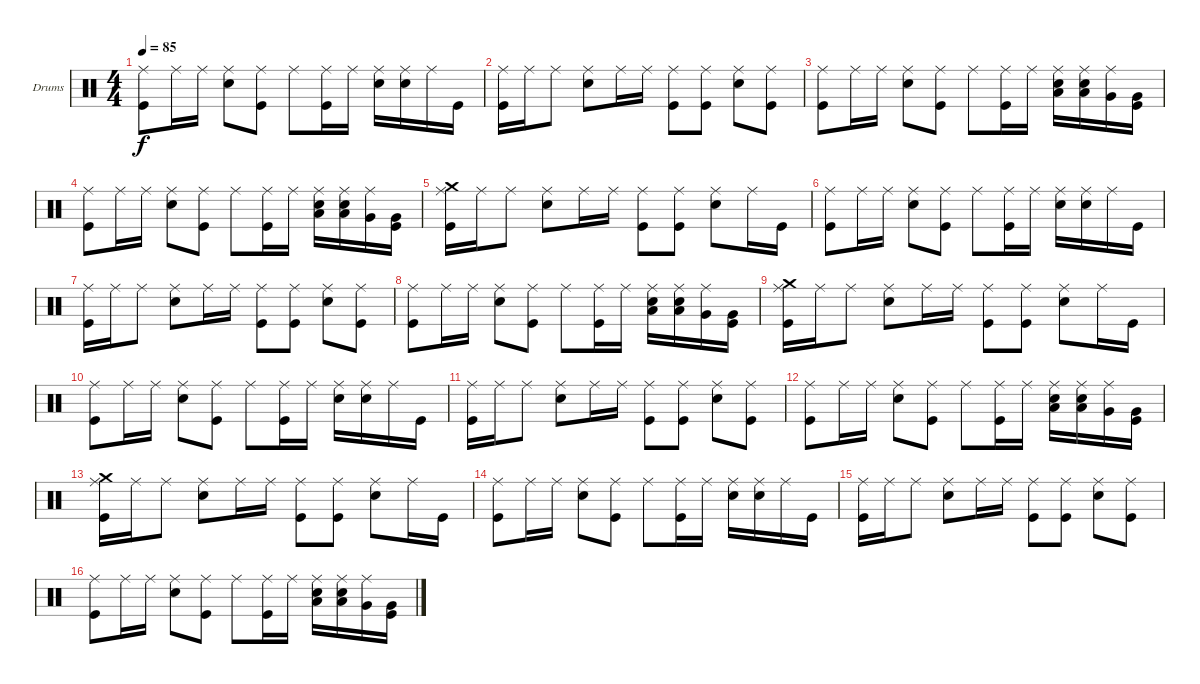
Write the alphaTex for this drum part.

\bracketExtendMode groupsimilarinstruments
\firstSystemTrackNameOrientation horizontal
\otherSystemsTrackNameOrientation horizontal
\track ("Drumkit" "Drums") {instrument percussion}
\staff {score}
\articulation defaults
\ts (4 4)
\tempo 85
\clef neutral
\ks c
("Kick (hit)" "Ride (middle)").8{dy f} "Ride (middle)".16 "Ride (middle)".16 ("Snare (hit) 2" "Ride (middle)").8 ("Kick (hit)" "Ride (middle)").8 "Ride (middle)".8 ("Kick (hit)" "Ride (middle)").16 "Ride (middle)".16 ("Snare (hit) 2" "Ride (middle)").16 ("Snare (hit) 2" "Ride (middle)").16 "Ride (middle)".16 "Kick (hit)".16 |
("Kick (hit)" "Ride (middle)").16 "Ride (middle)".16 "Ride (middle)".8 ("Snare (hit) 2" "Ride (middle)").8 "Ride (middle)".16 "Ride (middle)".16 ("Kick (hit)" "Ride (middle)").8 ("Kick (hit)" "Ride (middle)").8 ("Snare (hit) 2" "Ride (middle)").8 ("Kick (hit)" "Ride (middle)").8 |
("Kick (hit)" "Ride (middle)").8 "Ride (middle)".16 "Ride (middle)".16 ("Snare (hit) 2" "Ride (middle)").8 ("Kick (hit)" "Ride (middle)").8 "Ride (middle)".8 ("Kick (hit)" "Ride (middle)").16 "Ride (middle)".16 ("Snare (hit) 2" "Low Tom (hit)" "Ride (middle)").16 ("Snare (hit) 2" "Low Tom (hit)" "Ride (middle)").16 ("Very Low Tom (hit)" "Ride (middle)").16 ("Kick (hit)" "Very Low Tom (hit)").16 |
("Kick (hit)" "Ride (middle)").8 "Ride (middle)".16 "Ride (middle)".16 ("Snare (hit) 2" "Ride (middle)").8 ("Kick (hit)" "Ride (middle)").8 "Ride (middle)".8 ("Kick (hit)" "Ride (middle)").16 "Ride (middle)".16 ("Snare (hit) 2" "Low Tom (hit)" "Ride (middle)").16 ("Snare (hit) 2" "Low Tom (hit)" "Ride (middle)").16 ("Very Low Tom (hit)" "Ride (middle)").16 ("Kick (hit)" "Very Low Tom (hit)").16 |
("Kick (hit)" "Crash medium (hit)" "Ride (middle)").16 "Ride (middle)".16 "Ride (middle)".8 ("Snare (hit) 2" "Ride (middle)").8 "Ride (middle)".16 "Ride (middle)".16 ("Kick (hit)" "Ride (middle)").8 ("Kick (hit)" "Ride (middle)").8 ("Snare (hit) 2" "Ride (middle)").8 "Ride (middle)".16 "Kick (hit)".16 |
("Kick (hit)" "Ride (middle)").8 "Ride (middle)".16 "Ride (middle)".16 ("Snare (hit) 2" "Ride (middle)").8 ("Kick (hit)" "Ride (middle)").8 "Ride (middle)".8 ("Kick (hit)" "Ride (middle)").16 "Ride (middle)".16 ("Snare (hit) 2" "Ride (middle)").16 ("Snare (hit) 2" "Ride (middle)").16 "Ride (middle)".16 "Kick (hit)".16 |
("Kick (hit)" "Ride (middle)").16 "Ride (middle)".16 "Ride (middle)".8 ("Snare (hit) 2" "Ride (middle)").8 "Ride (middle)".16 "Ride (middle)".16 ("Kick (hit)" "Ride (middle)").8 ("Kick (hit)" "Ride (middle)").8 ("Snare (hit) 2" "Ride (middle)").8 ("Kick (hit)" "Ride (middle)").8 |
("Kick (hit)" "Ride (middle)").8 "Ride (middle)".16 "Ride (middle)".16 ("Snare (hit) 2" "Ride (middle)").8 ("Kick (hit)" "Ride (middle)").8 "Ride (middle)".8 ("Kick (hit)" "Ride (middle)").16 "Ride (middle)".16 ("Snare (hit) 2" "Low Tom (hit)" "Ride (middle)").16 ("Snare (hit) 2" "Low Tom (hit)" "Ride (middle)").16 ("Very Low Tom (hit)" "Ride (middle)").16 ("Kick (hit)" "Very Low Tom (hit)").16 |
("Kick (hit)" "Crash medium (hit)" "Ride (middle)").16 "Ride (middle)".16 "Ride (middle)".8 ("Snare (hit) 2" "Ride (middle)").8 "Ride (middle)".16 "Ride (middle)".16 ("Kick (hit)" "Ride (middle)").8 ("Kick (hit)" "Ride (middle)").8 ("Snare (hit) 2" "Ride (middle)").8 "Ride (middle)".16 "Kick (hit)".16 |
("Kick (hit)" "Ride (middle)").8 "Ride (middle)".16 "Ride (middle)".16 ("Snare (hit) 2" "Ride (middle)").8 ("Kick (hit)" "Ride (middle)").8 "Ride (middle)".8 ("Kick (hit)" "Ride (middle)").16 "Ride (middle)".16 ("Snare (hit) 2" "Ride (middle)").16 ("Snare (hit) 2" "Ride (middle)").16 "Ride (middle)".16 "Kick (hit)".16 |
("Kick (hit)" "Ride (middle)").16 "Ride (middle)".16 "Ride (middle)".8 ("Snare (hit) 2" "Ride (middle)").8 "Ride (middle)".16 "Ride (middle)".16 ("Kick (hit)" "Ride (middle)").8 ("Kick (hit)" "Ride (middle)").8 ("Snare (hit) 2" "Ride (middle)").8 ("Kick (hit)" "Ride (middle)").8 |
("Kick (hit)" "Ride (middle)").8 "Ride (middle)".16 "Ride (middle)".16 ("Snare (hit) 2" "Ride (middle)").8 ("Kick (hit)" "Ride (middle)").8 "Ride (middle)".8 ("Kick (hit)" "Ride (middle)").16 "Ride (middle)".16 ("Snare (hit) 2" "Low Tom (hit)" "Ride (middle)").16 ("Snare (hit) 2" "Low Tom (hit)" "Ride (middle)").16 ("Very Low Tom (hit)" "Ride (middle)").16 ("Kick (hit)" "Very Low Tom (hit)").16 |
("Kick (hit)" "Crash medium (hit)" "Ride (middle)").16 "Ride (middle)".16 "Ride (middle)".8 ("Snare (hit) 2" "Ride (middle)").8 "Ride (middle)".16 "Ride (middle)".16 ("Kick (hit)" "Ride (middle)").8 ("Kick (hit)" "Ride (middle)").8 ("Snare (hit) 2" "Ride (middle)").8 "Ride (middle)".16 "Kick (hit)".16 |
("Kick (hit)" "Ride (middle)").8 "Ride (middle)".16 "Ride (middle)".16 ("Snare (hit) 2" "Ride (middle)").8 ("Kick (hit)" "Ride (middle)").8 "Ride (middle)".8 ("Kick (hit)" "Ride (middle)").16 "Ride (middle)".16 ("Snare (hit) 2" "Ride (middle)").16 ("Snare (hit) 2" "Ride (middle)").16 "Ride (middle)".16 "Kick (hit)".16 |
("Kick (hit)" "Ride (middle)").16 "Ride (middle)".16 "Ride (middle)".8 ("Snare (hit) 2" "Ride (middle)").8 "Ride (middle)".16 "Ride (middle)".16 ("Kick (hit)" "Ride (middle)").8 ("Kick (hit)" "Ride (middle)").8 ("Snare (hit) 2" "Ride (middle)").8 ("Kick (hit)" "Ride (middle)").8 |
("Kick (hit)" "Ride (middle)").8 "Ride (middle)".16 "Ride (middle)".16 ("Snare (hit) 2" "Ride (middle)").8 ("Kick (hit)" "Ride (middle)").8 "Ride (middle)".8 ("Kick (hit)" "Ride (middle)").16 "Ride (middle)".16 ("Snare (hit) 2" "Low Tom (hit)" "Ride (middle)").16 ("Snare (hit) 2" "Low Tom (hit)" "Ride (middle)").16 ("Very Low Tom (hit)" "Ride (middle)").16 ("Kick (hit)" "Very Low Tom (hit)").16
